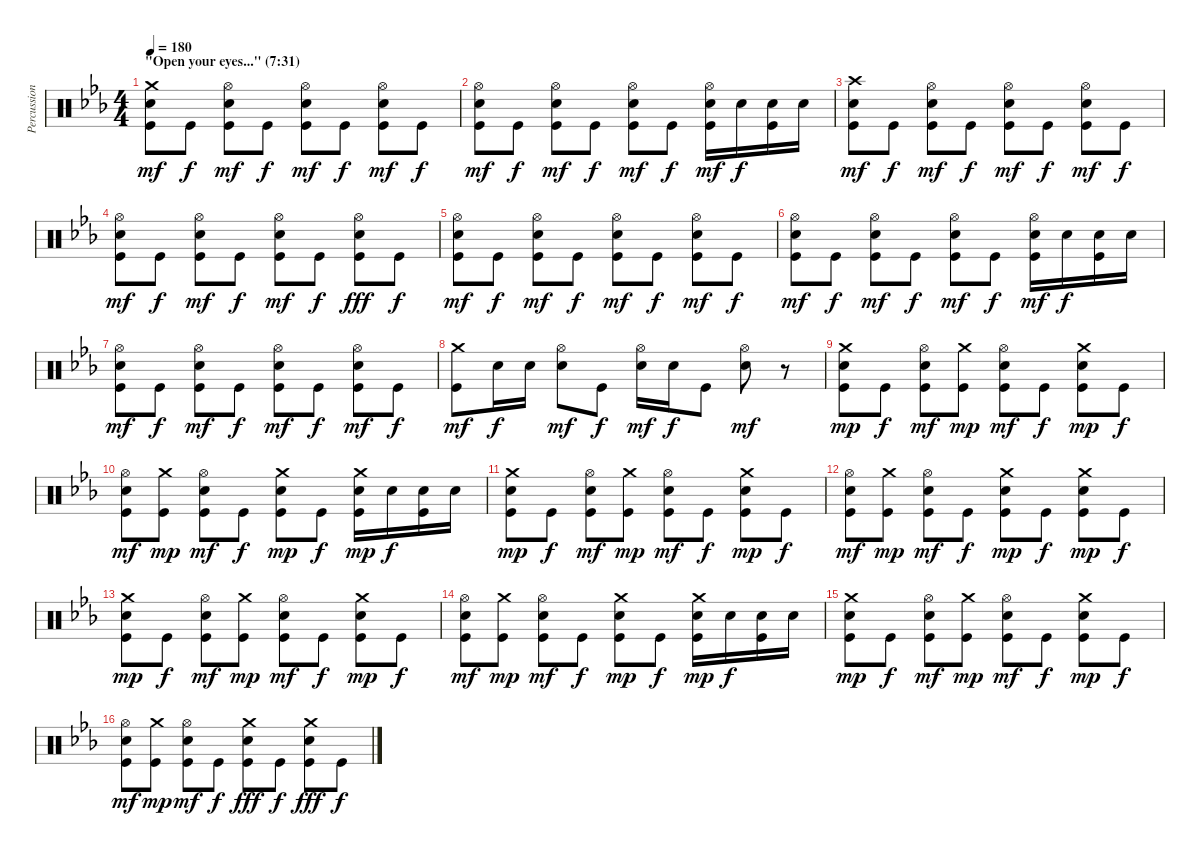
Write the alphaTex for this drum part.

\track ("Percussion" "Percussion") {instrument percussion}
\staff {score}
\articulation defaults
\ts (4 4)
\section ("" "\"Open your eyes...\" (7:31)")
\tempo 180
\clef neutral
\ks cminor
("Crash medium (hit)" "Snare (hit) 2" "Kick (hit)").8{dy mf} "Kick (hit)".8{dy f} ("Hi-Hat (open)" "Snare (hit) 2" "Kick (hit)").8{dy mf} "Kick (hit)".8{dy f} ("Hi-Hat (open)" "Snare (hit) 2" "Kick (hit)").8{dy mf} "Kick (hit)".8{dy f} ("Hi-Hat (open)" "Snare (hit) 2" "Kick (hit)").8{dy mf} "Kick (hit)".8{dy f} |
("Hi-Hat (open)" "Snare (hit) 2" "Kick (hit)").8{dy mf} "Kick (hit)".8{dy f} ("Hi-Hat (open)" "Snare (hit) 2" "Kick (hit)").8{dy mf} "Kick (hit)".8{dy f} ("Hi-Hat (open)" "Snare (hit) 2" "Kick (hit)").8{dy mf} "Kick (hit)".8{dy f} ("Hi-Hat (open)" "Snare (hit) 2" "Kick (hit)").16{dy mf} "Snare (hit) 2".16{dy f} ("Snare (hit) 2" "Kick (hit)").16 "Snare (hit) 2".16 |
("Crash high (hit)" "Snare (hit) 2" "Kick (hit)").8{dy mf} "Kick (hit)".8{dy f} ("Hi-Hat (open)" "Snare (hit) 2" "Kick (hit)").8{dy mf} "Kick (hit)".8{dy f} ("Hi-Hat (open)" "Snare (hit) 2" "Kick (hit)").8{dy mf} "Kick (hit)".8{dy f} ("Hi-Hat (open)" "Snare (hit) 2" "Kick (hit)").8{dy mf} "Kick (hit)".8{dy f} |
("Hi-Hat (open)" "Snare (hit) 2" "Kick (hit)").8{dy mf} "Kick (hit)".8{dy f} ("Hi-Hat (open)" "Snare (hit) 2" "Kick (hit)").8{dy mf} "Kick (hit)".8{dy f} ("Hi-Hat (open)" "Snare (hit) 2" "Kick (hit)").8{dy mf} "Kick (hit)".8{dy f} ("Hi-Hat (open)" "Snare (hit) 2" "Kick (hit)").8{dy fff} "Kick (hit)".8{dy f} |
("Hi-Hat (open)" "Snare (hit) 2" "Kick (hit)").8{dy mf} "Kick (hit)".8{dy f} ("Hi-Hat (open)" "Snare (hit) 2" "Kick (hit)").8{dy mf} "Kick (hit)".8{dy f} ("Hi-Hat (open)" "Snare (hit) 2" "Kick (hit)").8{dy mf} "Kick (hit)".8{dy f} ("Hi-Hat (open)" "Snare (hit) 2" "Kick (hit)").8{dy mf} "Kick (hit)".8{dy f} |
("Hi-Hat (open)" "Snare (hit) 2" "Kick (hit)").8{dy mf} "Kick (hit)".8{dy f} ("Hi-Hat (open)" "Snare (hit) 2" "Kick (hit)").8{dy mf} "Kick (hit)".8{dy f} ("Hi-Hat (open)" "Snare (hit) 2" "Kick (hit)").8{dy mf} "Kick (hit)".8{dy f} ("Hi-Hat (open)" "Snare (hit) 2" "Kick (hit)").16{dy mf} "Snare (hit) 2".16{dy f} ("Snare (hit) 2" "Kick (hit)").16 "Snare (hit) 2".16 |
("Hi-Hat (open)" "Snare (hit) 2" "Kick (hit)").8{dy mf} "Kick (hit)".8{dy f} ("Hi-Hat (open)" "Snare (hit) 2" "Kick (hit)").8{dy mf} "Kick (hit)".8{dy f} ("Hi-Hat (open)" "Snare (hit) 2" "Kick (hit)").8{dy mf} "Kick (hit)".8{dy f} ("Hi-Hat (open)" "Snare (hit) 2" "Kick (hit)").8{dy mf} "Kick (hit)".8{dy f} |
("Crash medium (hit)" "Kick (hit)").8{dy mf} "Snare (hit) 2".16{dy f} "Snare (hit) 2".16 ("Hi-Hat (open)" "Snare (hit) 2").8{dy mf} "Kick (hit)".8{dy f} ("Hi-Hat (open)" "Snare (hit) 2").16{dy mf} "Snare (hit) 2".16{dy f} "Kick (hit)".8 ("Hi-Hat (open)" "Snare (hit) 2").8{dy mf} r.8 |
("Crash medium (hit)" "Snare (hit) 2" "Kick (hit)").8{dy mp} "Kick (hit)".8{dy f} ("Hi-Hat (open)" "Snare (hit) 2" "Kick (hit)").8{dy mf} ("Crash medium (hit)" "Kick (hit)").8{dy mp} ("Hi-Hat (open)" "Snare (hit) 2" "Kick (hit)").8{dy mf} "Kick (hit)".8{dy f} ("Crash medium (hit)" "Snare (hit) 2" "Kick (hit)").8{dy mp} "Kick (hit)".8{dy f} |
("Hi-Hat (open)" "Snare (hit) 2" "Kick (hit)").8{dy mf} ("Crash medium (hit)" "Kick (hit)").8{dy mp} ("Hi-Hat (open)" "Snare (hit) 2" "Kick (hit)").8{dy mf} "Kick (hit)".8{dy f} ("Crash medium (hit)" "Snare (hit) 2" "Kick (hit)").8{dy mp} "Kick (hit)".8{dy f} ("Crash medium (hit)" "Snare (hit) 2" "Kick (hit)").16{dy mp} "Snare (hit) 2".16{dy f} ("Snare (hit) 2" "Kick (hit)").16 "Snare (hit) 2".16 |
("Crash medium (hit)" "Snare (hit) 2" "Kick (hit)").8{dy mp} "Kick (hit)".8{dy f} ("Hi-Hat (open)" "Snare (hit) 2" "Kick (hit)").8{dy mf} ("Crash medium (hit)" "Kick (hit)").8{dy mp} ("Hi-Hat (open)" "Snare (hit) 2" "Kick (hit)").8{dy mf} "Kick (hit)".8{dy f} ("Crash medium (hit)" "Snare (hit) 2" "Kick (hit)").8{dy mp} "Kick (hit)".8{dy f} |
("Hi-Hat (open)" "Snare (hit) 2" "Kick (hit)").8{dy mf} ("Crash medium (hit)" "Kick (hit)").8{dy mp} ("Hi-Hat (open)" "Snare (hit) 2" "Kick (hit)").8{dy mf} "Kick (hit)".8{dy f} ("Crash medium (hit)" "Snare (hit) 2" "Kick (hit)").8{dy mp} "Kick (hit)".8{dy f} ("Crash medium (hit)" "Snare (hit) 2" "Kick (hit)").8{dy mp} "Kick (hit)".8{dy f} |
("Crash medium (hit)" "Snare (hit) 2" "Kick (hit)").8{dy mp} "Kick (hit)".8{dy f} ("Hi-Hat (open)" "Snare (hit) 2" "Kick (hit)").8{dy mf} ("Crash medium (hit)" "Kick (hit)").8{dy mp} ("Hi-Hat (open)" "Snare (hit) 2" "Kick (hit)").8{dy mf} "Kick (hit)".8{dy f} ("Crash medium (hit)" "Snare (hit) 2" "Kick (hit)").8{dy mp} "Kick (hit)".8{dy f} |
("Hi-Hat (open)" "Snare (hit) 2" "Kick (hit)").8{dy mf} ("Crash medium (hit)" "Kick (hit)").8{dy mp} ("Hi-Hat (open)" "Snare (hit) 2" "Kick (hit)").8{dy mf} "Kick (hit)".8{dy f} ("Crash medium (hit)" "Snare (hit) 2" "Kick (hit)").8{dy mp} "Kick (hit)".8{dy f} ("Crash medium (hit)" "Snare (hit) 2" "Kick (hit)").16{dy mp} "Snare (hit) 2".16{dy f} ("Snare (hit) 2" "Kick (hit)").16 "Snare (hit) 2".16 |
("Crash medium (hit)" "Snare (hit) 2" "Kick (hit)").8{dy mp} "Kick (hit)".8{dy f} ("Hi-Hat (open)" "Snare (hit) 2" "Kick (hit)").8{dy mf} ("Crash medium (hit)" "Kick (hit)").8{dy mp} ("Hi-Hat (open)" "Snare (hit) 2" "Kick (hit)").8{dy mf} "Kick (hit)".8{dy f} ("Crash medium (hit)" "Snare (hit) 2" "Kick (hit)").8{dy mp} "Kick (hit)".8{dy f} |
("Hi-Hat (open)" "Snare (hit) 2" "Kick (hit)").8{dy mf} ("Crash medium (hit)" "Kick (hit)").8{dy mp} ("Hi-Hat (open)" "Snare (hit) 2" "Kick (hit)").8{dy mf} "Kick (hit)".8{dy f} ("Crash medium (hit)" "Snare (hit) 2" "Kick (hit)").8{dy fff} "Kick (hit)".8{dy f} ("Crash medium (hit)" "Snare (hit) 2" "Kick (hit)").8{dy fff} "Kick (hit)".8{dy f}
